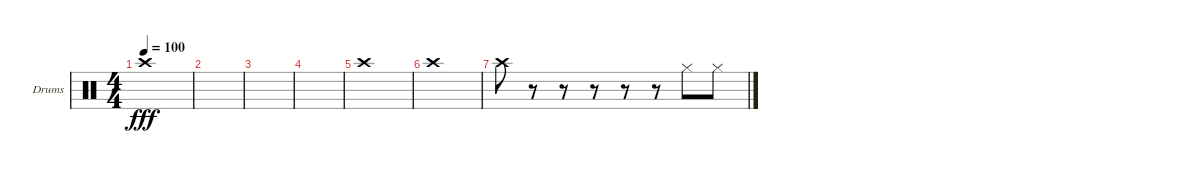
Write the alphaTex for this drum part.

\defaultSystemsLayout 4
\bracketExtendMode groupsimilarinstruments
\firstSystemTrackNameOrientation horizontal
\otherSystemsTrackNameOrientation horizontal
\track ("Drumkit" "Drums") {instrument percussion}
\staff {score}
\articulation defaults
\ts (4 4)
\tempo 100
\clef neutral
\scale
0.472222
\ks c "Crash high (hit)".1{dy fff}
|
\scale
0.263889 |
\scale
0.263889 |
\scale
0.333333 |
\scale
0.333333 "Crash high (hit)".1 |
\scale
0.333333 "Crash high (hit)".1 |
\scale
0.333333 "Crash high (hit)".8 r.8 r.8 r.8 r.8 r.8 "Hi-Hat (closed)".8 "Hi-Hat (closed)".8 |
\scale
0.333333 |
\scale
0.333333
